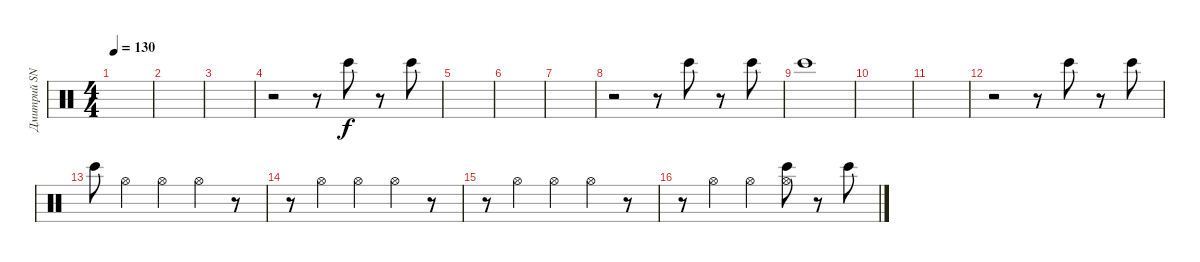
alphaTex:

\track ("Дмитрий SNAKE Хакимов (drum-machine)" "Дмитрий SN") {instrument percussion}
\staff {score}
\articulation defaults
\ts (4 4)
\tempo 130
\clef neutral
\ks c
|
|
|
r.2 r.8 "Bongo High (hit)".8 r.8 "Bongo High (hit)".8 |
|
|
|
r.2 r.8 "Bongo High (hit)".8 r.8 "Bongo High (hit)".8 |
"Bongo High (hit)".1 |
|
|
r.2 r.8 "Bongo High (hit)".8 r.8 "Bongo High (hit)".8 |
"Bongo High (hit)".8 "Hi-Hat (open)".4 "Hi-Hat (open)".4 "Hi-Hat (open)".4 r.8 |
r.8 "Hi-Hat (open)".4 "Hi-Hat (open)".4 "Hi-Hat (open)".4 r.8 |
r.8 "Hi-Hat (open)".4 "Hi-Hat (open)".4 "Hi-Hat (open)".4 r.8 |
r.8 "Hi-Hat (open)".4 "Hi-Hat (open)".4 ("Hi-Hat (open)" "Bongo High (hit)").8 r.8 "Bongo High (hit)".8
